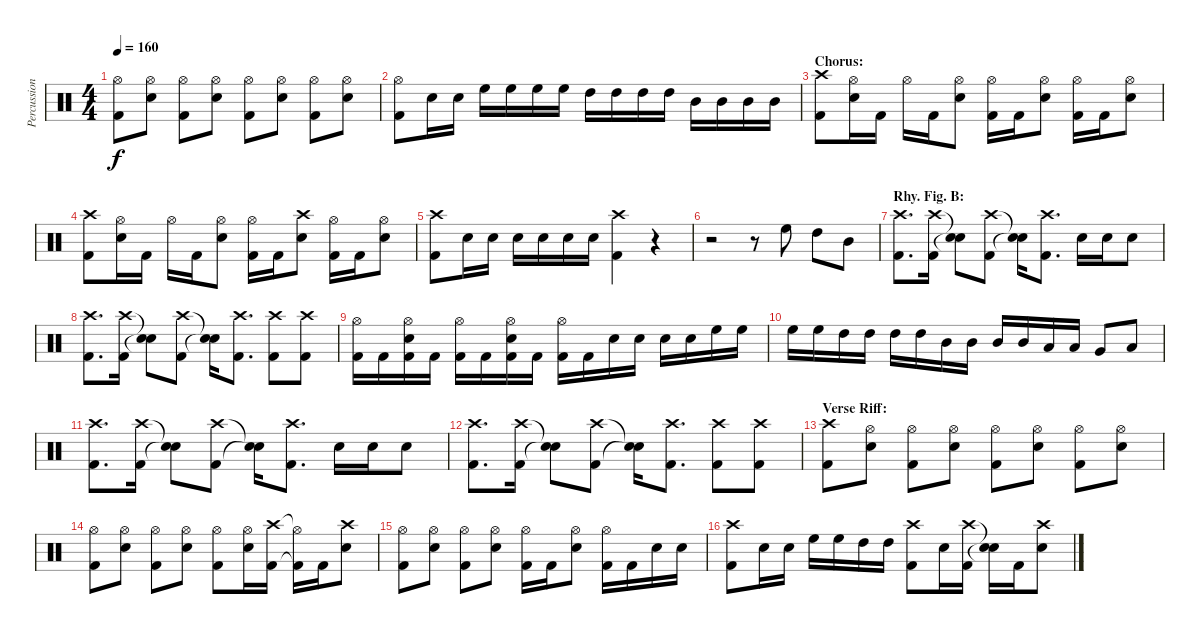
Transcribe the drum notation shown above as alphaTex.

\track ("Percussion" "Percussion") {instrument percussion}
\staff {score}
\articulation defaults
\ts (4 4)
\tempo 160
\clef neutral
\ks c
("Hi-Hat (open)" "Kick (hit) 2").8{dy f} ("Hi-Hat (open)" "Snare (hit) 2").8 ("Hi-Hat (open)" "Kick (hit) 2").8 ("Hi-Hat (open)" "Snare (hit) 2").8 ("Hi-Hat (open)" "Kick (hit) 2").8 ("Hi-Hat (open)" "Snare (hit) 2").8 ("Hi-Hat (open)" "Kick (hit) 2").8 ("Hi-Hat (open)" "Snare (hit) 2").8 |
("Hi-Hat (open)" "Kick (hit) 2").8 "Snare (hit) 2".16 "Snare (hit) 2".16 "High Floor Tom (hit)".16 "High Floor Tom (hit)".16 "High Floor Tom (hit)".16 "High Floor Tom (hit)".16 "High Tom (hit)".16 "High Tom (hit)".16 "High Tom (hit)".16 "High Tom (hit)".16 "Mid Tom (hit)".16 "Mid Tom (hit)".16 "Mid Tom (hit)".16 "Mid Tom (hit)".16 |
\section ("" "Chorus:")
("Crash high (hit)" "Kick (hit) 2").8 ("Hi-Hat (open)" "Snare (hit) 2").16 "Kick (hit) 2".16 "Hi-Hat (open)".16 "Kick (hit) 2".16 ("Hi-Hat (open)" "Snare (hit) 2").8 ("Hi-Hat (open)" "Kick (hit) 2").16 "Kick (hit) 2".16 ("Hi-Hat (open)" "Snare (hit) 2").8 ("Hi-Hat (open)" "Kick (hit) 2").16 "Kick (hit) 2".16 ("Hi-Hat (open)" "Snare (hit) 2").8 |
("Crash high (hit)" "Kick (hit) 2").8 ("Hi-Hat (open)" "Snare (hit) 2").16 "Kick (hit) 2".16 "Hi-Hat (open)".16 "Kick (hit) 2".16 ("Hi-Hat (open)" "Snare (hit) 2").8 ("Hi-Hat (open)" "Kick (hit) 2").16 "Kick (hit) 2".16 ("Crash high (hit)" "Snare (hit) 2").8 ("Hi-Hat (open)" "Kick (hit) 2").16 "Kick (hit) 2".16 ("Hi-Hat (open)" "Snare (hit) 2").8 |
("Crash high (hit)" "Kick (hit) 2").8 "Snare (hit) 2".16 "Snare (hit) 2".16 "Snare (hit) 2".16 "Snare (hit) 2".16 "Snare (hit) 2".16 "Snare (hit) 2".16 ("Crash high (hit)" "Kick (hit) 2").4 r.4 |
r.2 r.8 "High Floor Tom (hit)".8 "High Tom (hit)".8 "Mid Tom (hit)".8 |
\section ("" "Rhy. Fig. B:")
("Crash high (hit)" "Kick (hit) 2").8{d} ("Crash high (hit)" "Kick (hit) 2").16 ("Snare (hit)"{t} "Snare (hit)"{t}).8 ("Crash high (hit)" "Kick (hit) 2").8 ("Snare (hit)"{t} "Snare (hit)"{t}).16 ("Crash high (hit)" "Kick (hit) 2").8{d} "Snare (hit) 2".16 "Snare (hit) 2".16 "Snare (hit) 2".8 |
("Crash high (hit)" "Kick (hit) 2").8{d} ("Crash high (hit)" "Kick (hit) 2").16 ("Snare (hit)"{t} "Snare (hit)"{t}).8 ("Crash high (hit)" "Kick (hit) 2").8 ("Snare (hit)"{t} "Snare (hit)"{t}).16 ("Crash high (hit)" "Kick (hit) 2").8{d} ("Crash high (hit)" "Kick (hit) 2").8 ("Crash high (hit)" "Kick (hit) 2").8 |
("Hi-Hat (open)" "Kick (hit) 2").16 "Kick (hit) 2".16 ("Hi-Hat (open)" "Snare (hit) 2" "Kick (hit) 2").16 "Kick (hit) 2".16 ("Hi-Hat (open)" "Kick (hit) 2").16 "Kick (hit) 2".16 ("Hi-Hat (open)" "Snare (hit) 2" "Kick (hit) 2").16 "Kick (hit) 2".16 ("Hi-Hat (open)" "Kick (hit) 2").16 "Kick (hit) 2".16 "Snare (hit) 2".16 "Snare (hit) 2".16 "Snare (hit) 2".16 "Snare (hit) 2".16 "High Floor Tom (hit)".16 "High Floor Tom (hit)".16 |
"High Floor Tom (hit)".16 "High Floor Tom (hit)".16 "High Tom (hit)".16 "High Tom (hit)".16 "High Tom (hit)".16 "High Tom (hit)".16 "Mid Tom (hit)".16 "Mid Tom (hit)".16 "Mid Tom (hit)".16 "Mid Tom (hit)".16 "Low Tom (hit)".16 "Low Tom (hit)".16 "Very Low Tom (hit)".8 "Low Floor Tom (hit)".8 |
("Crash high (hit)" "Kick (hit) 2").8{d} ("Crash high (hit)" "Kick (hit) 2").16 ("Snare (hit)"{t} "Snare (hit)"{t}).8 ("Crash high (hit)" "Kick (hit) 2").8 ("Snare (hit)"{t} "Snare (hit)"{t}).16 ("Crash high (hit)" "Kick (hit) 2").8{d} "Snare (hit) 2".16 "Snare (hit) 2".16 "Snare (hit) 2".8 |
("Crash high (hit)" "Kick (hit) 2").8{d} ("Crash high (hit)" "Kick (hit) 2").16 ("Snare (hit)"{t} "Snare (hit)"{t}).8 ("Crash high (hit)" "Kick (hit) 2").8 ("Snare (hit)"{t} "Snare (hit)"{t}).16 ("Crash high (hit)" "Kick (hit) 2").8{d} ("Crash high (hit)" "Kick (hit) 2").8 ("Crash high (hit)" "Kick (hit) 2").8 |
\section ("" "Verse Riff:")
("Crash high (hit)" "Kick (hit) 2").8 ("Hi-Hat (open)" "Snare (hit) 2").8 ("Hi-Hat (open)" "Kick (hit) 2").8 ("Hi-Hat (open)" "Snare (hit) 2").8 ("Hi-Hat (open)" "Kick (hit) 2").8 ("Hi-Hat (open)" "Snare (hit) 2").8 ("Hi-Hat (open)" "Kick (hit) 2").8 ("Hi-Hat (open)" "Snare (hit) 2").8 |
("Hi-Hat (open)" "Kick (hit) 2").8 ("Hi-Hat (open)" "Snare (hit) 2").8 ("Hi-Hat (open)" "Kick (hit) 2").8 ("Hi-Hat (open)" "Snare (hit) 2").8 ("Hi-Hat (open)" "Kick (hit) 2").8 ("Hi-Hat (open)" "Snare (hit) 2").16 ("Crash high (hit)" "Kick (hit) 2").16 ("Hi-Hat (open)"{t} "Kick (hit) 2"{t}).16 "Kick (hit) 2".16 ("Crash high (hit)" "Snare (hit) 2").8 |
("Hi-Hat (open)" "Kick (hit) 2").8 ("Hi-Hat (open)" "Snare (hit) 2").8 ("Hi-Hat (open)" "Kick (hit) 2").8 ("Hi-Hat (open)" "Snare (hit) 2").8 ("Hi-Hat (open)" "Kick (hit) 2").16 "Kick (hit) 2".16 ("Hi-Hat (open)" "Snare (hit) 2").8 ("Hi-Hat (open)" "Kick (hit) 2").16 "Kick (hit) 2".16 "Snare (hit) 2".16 "Snare (hit) 2".16 |
("Crash high (hit)" "Kick (hit) 2").8 "Snare (hit) 2".16 "Snare (hit) 2".16 "High Floor Tom (hit)".16 "High Floor Tom (hit)".16 "High Tom (hit)".16 "High Tom (hit)".16 ("Crash high (hit)" "Kick (hit) 2").8 "Snare (hit) 2".16 ("Crash high (hit)" "Kick (hit) 2").16 ("Snare (hit)"{t} "Snare (hit)"{t}).16 "Kick (hit) 2".16 ("Crash high (hit)" "Snare (hit) 2").8
